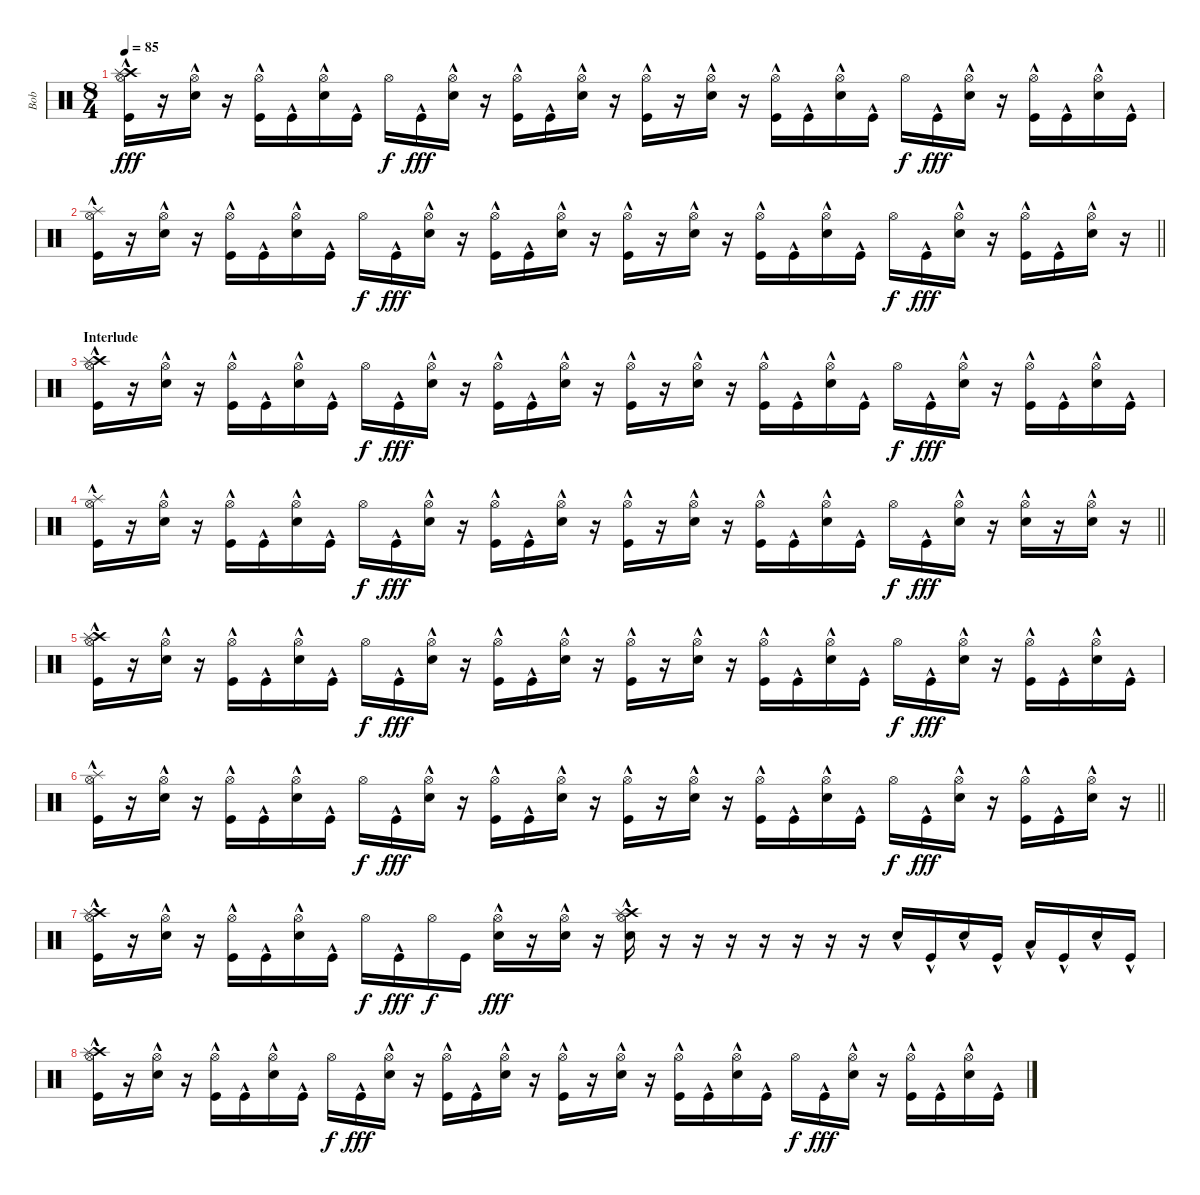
\track ("Bob" "Bob") {instrument percussion}
\staff {score}
\articulation defaults
\ts (8 4)
\tempo 85
\clef neutral
\ks c
("Crash high (hit)" "Splash (hit)"{hac} "Hi-Hat (open)" "Kick (hit)"{hac}).16{dy fff} r.16 ("Hi-Hat (open)" "Electric Snare (hit)"{hac}).16 r.16 ("Hi-Hat (open)" "Kick (hit)"{hac}).16 "Kick (hit)"{hac}.16 ("Hi-Hat (open)" "Electric Snare (hit)"{hac}).16 "Kick (hit)"{hac}.16 "Hi-Hat (open)".16{dy f} "Kick (hit)"{hac}.16{dy fff} ("Hi-Hat (open)" "Electric Snare (hit)"{hac}).16 r.16 ("Hi-Hat (open)" "Kick (hit)"{hac}).16 "Kick (hit)"{hac}.16 ("Hi-Hat (open)" "Electric Snare (hit)"{hac}).16 r.16 ("Hi-Hat (open)" "Kick (hit)"{hac}).16 r.16 ("Hi-Hat (open)" "Electric Snare (hit)"{hac}).16 r.16 ("Hi-Hat (open)" "Kick (hit)"{hac}).16 "Kick (hit)"{hac}.16 ("Hi-Hat (open)" "Electric Snare (hit)"{hac}).16 "Kick (hit)"{hac}.16 "Hi-Hat (open)".16{dy f} "Kick (hit)"{hac}.16{dy fff} ("Hi-Hat (open)" "Electric Snare (hit)"{hac}).16 r.16 ("Hi-Hat (open)" "Kick (hit)"{hac}).16 "Kick (hit)"{hac}.16 ("Hi-Hat (open)" "Electric Snare (hit)"{hac}).16 "Kick (hit)"{hac}.16 |
\barLineRight lightlight
("Splash (hit)"{hac} "Hi-Hat (open)" "Kick (hit)"{hac}).16 r.16 ("Hi-Hat (open)" "Electric Snare (hit)"{hac}).16 r.16 ("Hi-Hat (open)" "Kick (hit)"{hac}).16 "Kick (hit)"{hac}.16 ("Hi-Hat (open)" "Electric Snare (hit)"{hac}).16 "Kick (hit)"{hac}.16 "Hi-Hat (open)".16{dy f} "Kick (hit)"{hac}.16{dy fff} ("Hi-Hat (open)" "Electric Snare (hit)"{hac}).16 r.16 ("Hi-Hat (open)" "Kick (hit)"{hac}).16 "Kick (hit)"{hac}.16 ("Hi-Hat (open)" "Electric Snare (hit)"{hac}).16 r.16 ("Hi-Hat (open)" "Kick (hit)"{hac}).16 r.16 ("Hi-Hat (open)" "Electric Snare (hit)"{hac}).16 r.16 ("Hi-Hat (open)" "Kick (hit)"{hac}).16 "Kick (hit)"{hac}.16 ("Hi-Hat (open)" "Electric Snare (hit)"{hac}).16 "Kick (hit)"{hac}.16 "Hi-Hat (open)".16{dy f} "Kick (hit)"{hac}.16{dy fff} ("Hi-Hat (open)" "Electric Snare (hit)"{hac}).16 r.16 ("Hi-Hat (open)" "Kick (hit)"{hac}).16 "Kick (hit)"{hac}.16 ("Hi-Hat (open)" "Electric Snare (hit)"{hac}).16 r.16 |
\section ("" "Interlude")
("Crash high (hit)" "Splash (hit)"{hac} "Hi-Hat (open)" "Kick (hit)"{hac}).16 r.16 ("Hi-Hat (open)" "Electric Snare (hit)"{hac}).16 r.16 ("Hi-Hat (open)" "Kick (hit)"{hac}).16 "Kick (hit)"{hac}.16 ("Hi-Hat (open)" "Electric Snare (hit)"{hac}).16 "Kick (hit)"{hac}.16 "Hi-Hat (open)".16{dy f} "Kick (hit)"{hac}.16{dy fff} ("Hi-Hat (open)" "Electric Snare (hit)"{hac}).16 r.16 ("Hi-Hat (open)" "Kick (hit)"{hac}).16 "Kick (hit)"{hac}.16 ("Hi-Hat (open)" "Electric Snare (hit)"{hac}).16 r.16 ("Hi-Hat (open)" "Kick (hit)"{hac}).16 r.16 ("Hi-Hat (open)" "Electric Snare (hit)"{hac}).16 r.16 ("Hi-Hat (open)" "Kick (hit)"{hac}).16 "Kick (hit)"{hac}.16 ("Hi-Hat (open)" "Electric Snare (hit)"{hac}).16 "Kick (hit)"{hac}.16 "Hi-Hat (open)".16{dy f} "Kick (hit)"{hac}.16{dy fff} ("Hi-Hat (open)" "Electric Snare (hit)"{hac}).16 r.16 ("Hi-Hat (open)" "Kick (hit)"{hac}).16 "Kick (hit)"{hac}.16 ("Hi-Hat (open)" "Electric Snare (hit)"{hac}).16 "Kick (hit)"{hac}.16 |
\barLineRight lightlight
("Splash (hit)"{hac} "Hi-Hat (open)" "Kick (hit)"{hac}).16 r.16 ("Hi-Hat (open)" "Electric Snare (hit)"{hac}).16 r.16 ("Hi-Hat (open)" "Kick (hit)"{hac}).16 "Kick (hit)"{hac}.16 ("Hi-Hat (open)" "Electric Snare (hit)"{hac}).16 "Kick (hit)"{hac}.16 "Hi-Hat (open)".16{dy f} "Kick (hit)"{hac}.16{dy fff} ("Hi-Hat (open)" "Electric Snare (hit)"{hac}).16 r.16 ("Hi-Hat (open)" "Kick (hit)"{hac}).16 "Kick (hit)"{hac}.16 ("Hi-Hat (open)" "Electric Snare (hit)"{hac}).16 r.16 ("Hi-Hat (open)" "Kick (hit)"{hac}).16 r.16 ("Hi-Hat (open)" "Electric Snare (hit)"{hac}).16 r.16 ("Hi-Hat (open)" "Kick (hit)"{hac}).16 "Kick (hit)"{hac}.16 ("Hi-Hat (open)" "Electric Snare (hit)"{hac}).16 "Kick (hit)"{hac}.16 "Hi-Hat (open)".16{dy f} "Kick (hit)"{hac}.16{dy fff} ("Hi-Hat (open)" "Electric Snare (hit)"{hac}).16 r.16 ("Hi-Hat (open)" "Electric Snare (hit)"{hac}).16 r.16 ("Hi-Hat (open)" "Electric Snare (hit)"{hac}).16 r.16 |
("Crash high (hit)" "Splash (hit)"{hac} "Hi-Hat (open)" "Kick (hit)"{hac}).16 r.16 ("Hi-Hat (open)" "Electric Snare (hit)"{hac}).16 r.16 ("Hi-Hat (open)" "Kick (hit)"{hac}).16 "Kick (hit)"{hac}.16 ("Hi-Hat (open)" "Electric Snare (hit)"{hac}).16 "Kick (hit)"{hac}.16 "Hi-Hat (open)".16{dy f} "Kick (hit)"{hac}.16{dy fff} ("Hi-Hat (open)" "Electric Snare (hit)"{hac}).16 r.16 ("Hi-Hat (open)" "Kick (hit)"{hac}).16 "Kick (hit)"{hac}.16 ("Hi-Hat (open)" "Electric Snare (hit)"{hac}).16 r.16 ("Hi-Hat (open)" "Kick (hit)"{hac}).16 r.16 ("Hi-Hat (open)" "Electric Snare (hit)"{hac}).16 r.16 ("Hi-Hat (open)" "Kick (hit)"{hac}).16 "Kick (hit)"{hac}.16 ("Hi-Hat (open)" "Electric Snare (hit)"{hac}).16 "Kick (hit)"{hac}.16 "Hi-Hat (open)".16{dy f} "Kick (hit)"{hac}.16{dy fff} ("Hi-Hat (open)" "Electric Snare (hit)"{hac}).16 r.16 ("Hi-Hat (open)" "Kick (hit)"{hac}).16 "Kick (hit)"{hac}.16 ("Hi-Hat (open)" "Electric Snare (hit)"{hac}).16 "Kick (hit)"{hac}.16 |
\barLineRight lightlight
("Splash (hit)"{hac} "Hi-Hat (open)" "Kick (hit)"{hac}).16 r.16 ("Hi-Hat (open)" "Electric Snare (hit)"{hac}).16 r.16 ("Hi-Hat (open)" "Kick (hit)"{hac}).16 "Kick (hit)"{hac}.16 ("Hi-Hat (open)" "Electric Snare (hit)"{hac}).16 "Kick (hit)"{hac}.16 "Hi-Hat (open)".16{dy f} "Kick (hit)"{hac}.16{dy fff} ("Hi-Hat (open)" "Electric Snare (hit)"{hac}).16 r.16 ("Hi-Hat (open)" "Kick (hit)"{hac}).16 "Kick (hit)"{hac}.16 ("Hi-Hat (open)" "Electric Snare (hit)"{hac}).16 r.16 ("Hi-Hat (open)" "Kick (hit)"{hac}).16 r.16 ("Hi-Hat (open)" "Electric Snare (hit)"{hac}).16 r.16 ("Hi-Hat (open)" "Kick (hit)"{hac}).16 "Kick (hit)"{hac}.16 ("Hi-Hat (open)" "Electric Snare (hit)"{hac}).16 "Kick (hit)"{hac}.16 "Hi-Hat (open)".16{dy f} "Kick (hit)"{hac}.16{dy fff} ("Hi-Hat (open)" "Electric Snare (hit)"{hac}).16 r.16 ("Hi-Hat (open)" "Kick (hit)"{hac}).16 "Kick (hit)"{hac}.16 ("Hi-Hat (open)" "Electric Snare (hit)"{hac}).16 r.16 |
("Crash high (hit)" "Splash (hit)"{hac} "Hi-Hat (open)" "Kick (hit)"{hac}).16 r.16 ("Hi-Hat (open)" "Electric Snare (hit)"{hac}).16 r.16 ("Hi-Hat (open)" "Kick (hit)"{hac}).16 "Kick (hit)"{hac}.16 ("Hi-Hat (open)" "Electric Snare (hit)"{hac}).16 "Kick (hit)"{hac}.16 "Hi-Hat (open)".16{dy f} "Kick (hit)"{hac}.16{dy fff} "Hi-Hat (open)".16{dy f} "Kick (hit)".16 ("Hi-Hat (open)" "Electric Snare (hit)"{hac}).16{dy fff} r.16 ("Hi-Hat (open)" "Electric Snare (hit)"{hac}).16 r.16 ("Crash high (hit)" "Splash (hit)"{hac} "Hi-Hat (open)" "Electric Snare (hit)"{hac}).16 r.16 r.16 r.16 r.16 r.16 r.16 r.16 "Electric Snare (hit)"{hac}.16 "Kick (hit)"{hac}.16 "Electric Snare (hit)"{hac}.16 "Kick (hit)"{hac}.16 "Low Tom (hit)"{hac}.16 "Kick (hit)"{hac}.16 "Electric Snare (hit)"{hac}.16 "Kick (hit)"{hac}.16 |
("Crash high (hit)" "Splash (hit)"{hac} "Hi-Hat (open)" "Kick (hit)"{hac}).16 r.16 ("Hi-Hat (open)" "Electric Snare (hit)"{hac}).16 r.16 ("Hi-Hat (open)" "Kick (hit)"{hac}).16 "Kick (hit)"{hac}.16 ("Hi-Hat (open)" "Electric Snare (hit)"{hac}).16 "Kick (hit)"{hac}.16 "Hi-Hat (open)".16{dy f} "Kick (hit)"{hac}.16{dy fff} ("Hi-Hat (open)" "Electric Snare (hit)"{hac}).16 r.16 ("Hi-Hat (open)" "Kick (hit)"{hac}).16 "Kick (hit)"{hac}.16 ("Hi-Hat (open)" "Electric Snare (hit)"{hac}).16 r.16 ("Hi-Hat (open)" "Kick (hit)"{hac}).16 r.16 ("Hi-Hat (open)" "Electric Snare (hit)"{hac}).16 r.16 ("Hi-Hat (open)" "Kick (hit)"{hac}).16 "Kick (hit)"{hac}.16 ("Hi-Hat (open)" "Electric Snare (hit)"{hac}).16 "Kick (hit)"{hac}.16 "Hi-Hat (open)".16{dy f} "Kick (hit)"{hac}.16{dy fff} ("Hi-Hat (open)" "Electric Snare (hit)"{hac}).16 r.16 ("Hi-Hat (open)" "Kick (hit)"{hac}).16 "Kick (hit)"{hac}.16 ("Hi-Hat (open)" "Electric Snare (hit)"{hac}).16 "Kick (hit)"{hac}.16
